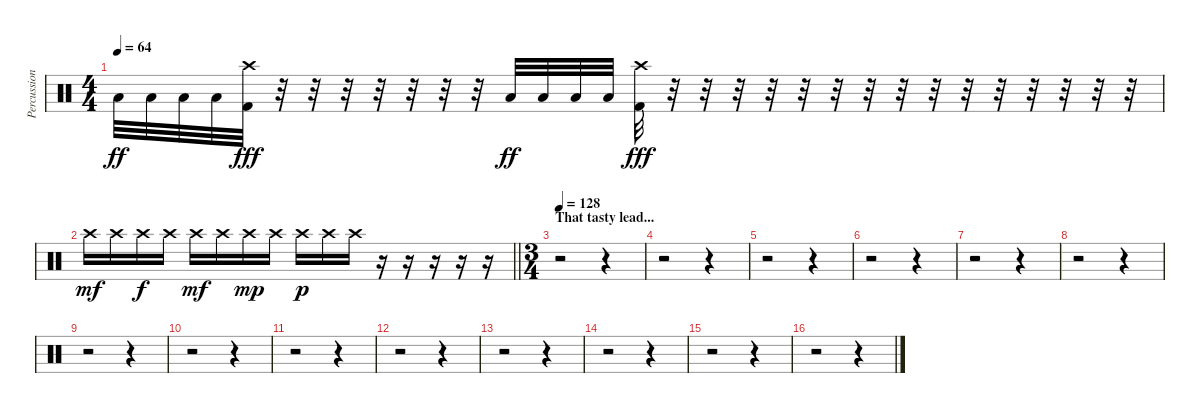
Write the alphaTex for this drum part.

\track ("Percussion" "Percussion") {instrument percussion}
\staff {score}
\articulation defaults
\ts (4 4)
\tempo 64
\clef neutral
\ks c "Low Floor Tom (hit)".32{dy ff} "Low Floor Tom (hit)".32 "Low Floor Tom (hit)".32 "Low Floor Tom (hit)".32
("Crash high (hit)" "Kick (hit) 2").32{dy fff} r.32 r.32 r.32 r.32 r.32 r.32 r.32 "Low Floor Tom (hit)".32{dy ff} "Low Floor Tom (hit)".32 "Low Floor Tom (hit)".32 "Low Floor Tom (hit)".32 ("Crash high (hit)" "Kick (hit) 2").32{dy fff} r.32 r.32 r.32 r.32 r.32 r.32 r.32 r.32 r.32 r.32 r.32 r.32 r.32 r.32 r.32 |
\barLineRight lightlight "Crash high (hit)".16{dy mf} "Crash high (hit)".16 "Crash high (hit)".16{dy f} "Crash high (hit)".16 "Crash high (hit)".16{dy mf} "Crash high (hit)".16 "Crash high (hit)".16{dy mp} "Crash high (hit)".16 "Crash high (hit)".16{dy p} "Crash high (hit)".16 "Crash high (hit)".16
r.16 r.16 r.16 r.16 r.16 |
\ts (3 4)
\section ("" "That tasty lead...")
\tempo 128
r.2 r.4 |
r.2 r.4 |
r.2 r.4 |
r.2 r.4 |
r.2 r.4 |
r.2 r.4 |
r.2 r.4 |
r.2 r.4 |
r.2 r.4 |
r.2 r.4 |
r.2 r.4 |
r.2 r.4 |
r.2 r.4 |
r.2 r.4
